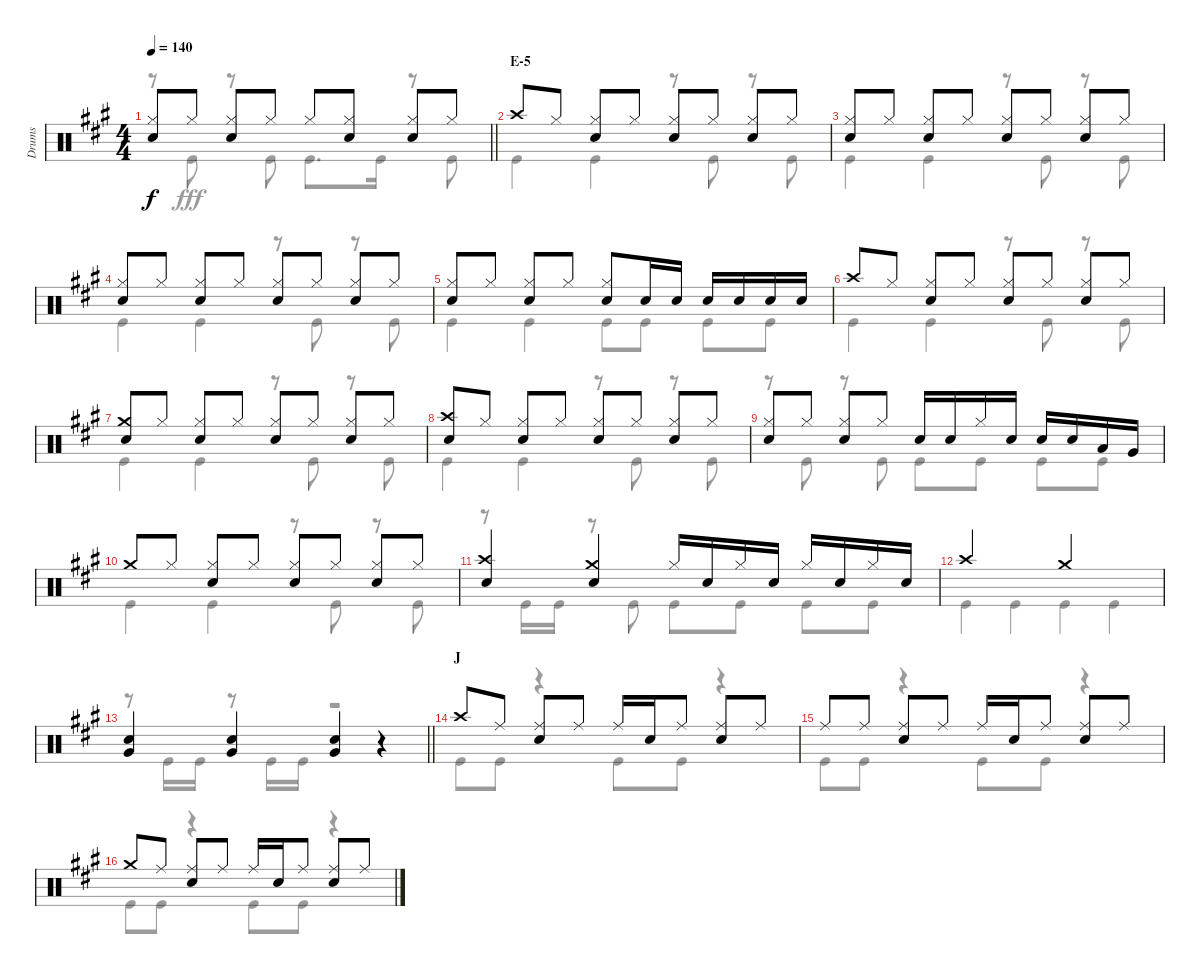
\track ("Drums" "Drums") {instrument percussion}
\staff {score}
\articulation defaults
\voice
\ts (4 4)
\tempo 140
\clef neutral
\barLineRight lightlight
\ks a
("Hi-Hat (closed)" "Snare (hit) 2").8{dy f} "Hi-Hat (closed)".8 ("Hi-Hat (closed)" "Snare (hit) 2").8 "Hi-Hat (closed)".8 "Hi-Hat (closed)".8 ("Hi-Hat (closed)" "Snare (hit) 2").8 ("Hi-Hat (closed)" "Snare (hit) 2").8 "Hi-Hat (closed)".8 |
\section ("" "E-5")
"Crash high (hit)".8 "Hi-Hat (closed)".8 ("Hi-Hat (closed)" "Snare (hit) 2").8 "Hi-Hat (closed)".8 ("Hi-Hat (closed)" "Snare (hit) 2").8 "Hi-Hat (closed)".8 ("Hi-Hat (closed)" "Snare (hit) 2").8 "Hi-Hat (closed)".8 |
("Hi-Hat (closed)" "Snare (hit) 2").8 "Hi-Hat (closed)".8 ("Hi-Hat (closed)" "Snare (hit) 2").8 "Hi-Hat (closed)".8 ("Hi-Hat (closed)" "Snare (hit) 2").8 "Hi-Hat (closed)".8 ("Hi-Hat (closed)" "Snare (hit) 2").8 "Hi-Hat (closed)".8 |
("Hi-Hat (closed)" "Snare (hit) 2").8 "Hi-Hat (closed)".8 ("Hi-Hat (closed)" "Snare (hit) 2").8 "Hi-Hat (closed)".8 ("Hi-Hat (closed)" "Snare (hit) 2").8 "Hi-Hat (closed)".8 ("Hi-Hat (closed)" "Snare (hit) 2").8 "Hi-Hat (closed)".8 |
("Hi-Hat (closed)" "Snare (hit) 2").8 "Hi-Hat (closed)".8 ("Hi-Hat (closed)" "Snare (hit) 2").8 "Hi-Hat (closed)".8 ("Hi-Hat (closed)" "Snare (hit) 2").8 "Snare (hit) 2".16 "Snare (hit) 2".16 "Snare (hit) 2".16 "Snare (hit) 2".16 "Snare (hit) 2".16 "Snare (hit) 2".16 |
"Crash high (hit)".8 "Hi-Hat (closed)".8 ("Hi-Hat (closed)" "Snare (hit) 2").8 "Hi-Hat (closed)".8 ("Hi-Hat (closed)" "Snare (hit) 2").8 "Hi-Hat (closed)".8 ("Hi-Hat (closed)" "Snare (hit) 2").8 "Hi-Hat (closed)".8 |
("Crash medium (hit)" "Snare (hit) 2").8 "Hi-Hat (closed)".8 ("Hi-Hat (closed)" "Snare (hit) 2").8 "Hi-Hat (closed)".8 ("Hi-Hat (closed)" "Snare (hit) 2").8 "Hi-Hat (closed)".8 ("Hi-Hat (closed)" "Snare (hit) 2").8 "Hi-Hat (closed)".8 |
("Crash high (hit)" "Snare (hit) 2").8 "Hi-Hat (closed)".8 ("Hi-Hat (closed)" "Snare (hit) 2").8 "Hi-Hat (closed)".8 ("Hi-Hat (closed)" "Snare (hit) 2").8 "Hi-Hat (closed)".8 ("Hi-Hat (closed)" "Snare (hit) 2").8 "Hi-Hat (closed)".8 |
("Hi-Hat (closed)" "Snare (hit) 2").8 "Hi-Hat (closed)".8 ("Hi-Hat (closed)" "Snare (hit) 2").8 "Hi-Hat (closed)".8 "Snare (hit) 2".16 "Snare (hit) 2".16 "Hi-Hat (closed)".16 "Snare (hit) 2".16 "Snare (hit) 2".16 "Snare (hit) 2".16 "Low Tom (hit)".16 "Very Low Tom (hit)".16 |
"Crash medium (hit)".8 "Hi-Hat (closed)".8 ("Hi-Hat (closed)" "Snare (hit) 2").8 "Hi-Hat (closed)".8 ("Hi-Hat (closed)" "Snare (hit) 2").8 "Hi-Hat (closed)".8 ("Hi-Hat (closed)" "Snare (hit) 2").8 "Hi-Hat (closed)".8 |
("Crash high (hit)" "Snare (hit) 2").4 ("Crash medium (hit)" "Snare (hit) 2").4 "Hi-Hat (closed)".16 "Snare (hit) 2".16 "Hi-Hat (closed)".16 "Snare (hit) 2".16 "Hi-Hat (closed)".16 "Snare (hit) 2".16 "Hi-Hat (closed)".16 "Snare (hit) 2".16 |
"Crash high (hit)".2 "Crash medium (hit)".2 |
\barLineRight lightlight
("Snare (hit) 2" "Very Low Tom (hit)").4 ("Snare (hit) 2" "Very Low Tom (hit)").4 ("Snare (hit) 2" "Very Low Tom (hit)").4 r.4 |
\section ("" "J")
"Crash high (hit)".8 "Ride (middle)".8 ("Ride (middle)" "Snare (hit) 2").8 "Ride (middle)".8 "Ride (middle)".16 "Snare (hit) 2".16 "Ride (middle)".8 ("Ride (middle)" "Snare (hit) 2").8 "Ride (middle)".8 |
"Ride (middle)".8 "Ride (middle)".8 ("Ride (middle)" "Snare (hit) 2").8 "Ride (middle)".8 "Ride (middle)".16 "Snare (hit) 2".16 "Ride (middle)".8 ("Ride (middle)" "Snare (hit) 2").8 "Ride (middle)".8 |
"Crash medium (hit)".8 "Ride (middle)".8 ("Ride (middle)" "Snare (hit) 2").8 "Ride (middle)".8 "Ride (middle)".16 "Snare (hit) 2".16 "Ride (middle)".8 ("Ride (middle)" "Snare (hit) 2").8 "Ride (middle)".8
\voice
\clef neutral
\ottava regular
\simile none
\barLineRight lightlight
\ks a
r.8{dy fff} "Kick (hit)".8 r.8 "Kick (hit)".8 "Kick (hit)".8{d} "Kick (hit)".16 r.8 "Kick (hit)".8 |
"Kick (hit)".4 "Kick (hit)".4 r.8 "Kick (hit)".8 r.8 "Kick (hit)".8 |
"Kick (hit)".4 "Kick (hit)".4 r.8 "Kick (hit)".8 r.8 "Kick (hit)".8 |
"Kick (hit)".4 "Kick (hit)".4 r.8 "Kick (hit)".8 r.8 "Kick (hit)".8 |
"Kick (hit)".4 "Kick (hit)".4 "Kick (hit)".8 "Kick (hit)".8 "Kick (hit)".8 "Kick (hit)".8 |
"Kick (hit)".4 "Kick (hit)".4 r.8 "Kick (hit)".8 r.8 "Kick (hit)".8 |
"Kick (hit)".4 "Kick (hit)".4 r.8 "Kick (hit)".8 r.8 "Kick (hit)".8 |
"Kick (hit)".4 "Kick (hit)".4 r.8 "Kick (hit)".8 r.8 "Kick (hit)".8 |
r.8 "Kick (hit)".8 r.8 "Kick (hit)".8 "Kick (hit)".8 "Kick (hit)".8 "Kick (hit)".8 "Kick (hit)".8 |
"Kick (hit)".4 "Kick (hit)".4 r.8 "Kick (hit)".8 r.8 "Kick (hit)".8 |
r.8 "Kick (hit)".16 "Kick (hit)".16 r.8 "Kick (hit)".8 "Kick (hit)".8 "Kick (hit)".8 "Kick (hit)".8 "Kick (hit)".8 |
"Kick (hit)".4 "Kick (hit)".4 "Kick (hit)".4 "Kick (hit)".4 |
\barLineRight lightlight
r.8 "Kick (hit)".16 "Kick (hit)".16 r.8 "Kick (hit)".16 "Kick (hit)".16 r.2 |
"Kick (hit)".8 "Kick (hit)".8 r.4 "Kick (hit)".8 "Kick (hit)".8 r.4 |
"Kick (hit)".8 "Kick (hit)".8 r.4 "Kick (hit)".8 "Kick (hit)".8 r.4 |
"Kick (hit)".8 "Kick (hit)".8 r.4 "Kick (hit)".8 "Kick (hit)".8 r.4
